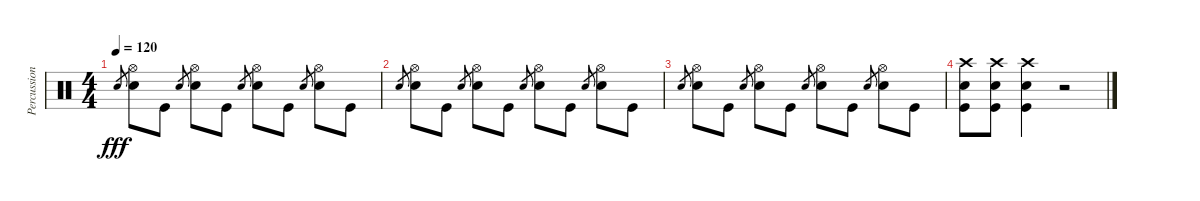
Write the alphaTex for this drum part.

\track ("Percussion" "Percussion") {instrument percussion}
\staff {score}
\articulation defaults
\ts (4 4)
\tempo 120
\clef neutral
\ks c "Snare (hit) 2".8{gr dy fff}
("Hi-Hat (open)" "Snare (hit) 2").8 "Kick (hit)".8 "Snare (hit) 2".8{gr} ("Hi-Hat (open)" "Snare (hit) 2").8 "Kick (hit)".8 "Snare (hit) 2".8{gr} ("Hi-Hat (open)" "Snare (hit) 2").8 "Kick (hit)".8 "Snare (hit) 2".8{gr} ("Hi-Hat (open)" "Snare (hit) 2").8 "Kick (hit)".8 |
"Snare (hit) 2".8{gr} ("Hi-Hat (open)" "Snare (hit) 2").8 "Kick (hit)".8 "Snare (hit) 2".8{gr} ("Hi-Hat (open)" "Snare (hit) 2").8 "Kick (hit)".8 "Snare (hit) 2".8{gr} ("Hi-Hat (open)" "Snare (hit) 2").8 "Kick (hit)".8 "Snare (hit) 2".8{gr} ("Hi-Hat (open)" "Snare (hit) 2").8 "Kick (hit)".8 |
"Snare (hit) 2".8{gr} ("Hi-Hat (open)" "Snare (hit) 2").8 "Kick (hit)".8 "Snare (hit) 2".8{gr} ("Hi-Hat (open)" "Snare (hit) 2").8 "Kick (hit)".8 "Snare (hit) 2".8{gr} ("Hi-Hat (open)" "Snare (hit) 2").8 "Kick (hit)".8 "Snare (hit) 2".8{gr} ("Hi-Hat (open)" "Snare (hit) 2").8 "Kick (hit)".8 |
("Crash high (hit)" "Snare (hit) 2" "Kick (hit)").8 ("Crash high (hit)" "Snare (hit) 2" "Kick (hit)").8 ("Crash high (hit)" "Snare (hit) 2" "Kick (hit)").4 r.2
